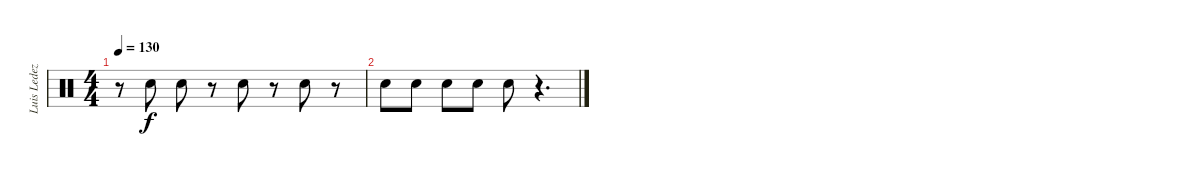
\track ("Luis Ledezma (bateria)" "Luis Ledez") {instrument percussion}
\staff {score}
\articulation defaults
\ts (4 4)
\tempo 130
\clef neutral
\ks c
r.8{dy f} "Snare (hit) 2".8 "Snare (hit) 2".8 r.8 "Snare (hit) 2".8 r.8 "Snare (hit) 2".8 r.8 |
"Snare (hit) 2".8 "Snare (hit) 2".8 "Snare (hit) 2".8 "Snare (hit) 2".8 "Snare (hit) 2".8 r.4{d}
